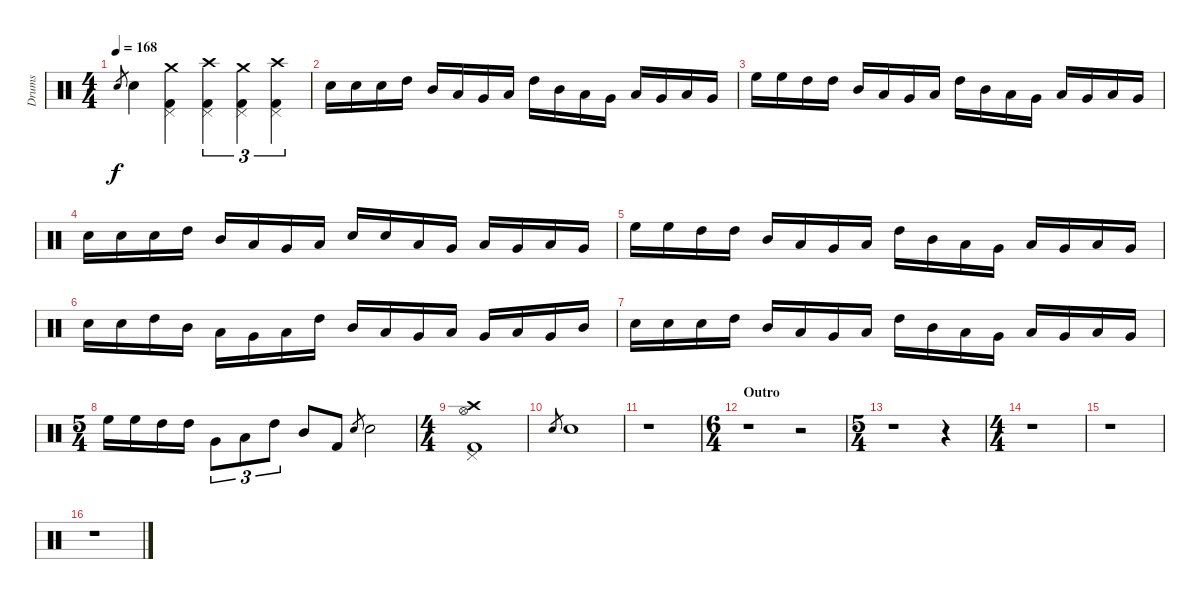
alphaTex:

\track ("Drums" "Drums") {instrument percussion}
\staff {score}
\articulation defaults
\ts (4 4)
\tempo 168
\clef neutral
\ks c "Snare (hit) 2".8{gr dy f} "Snare (hit) 2".4
("Kick (hit) 2" "Pedal Hi-Hat (hit)" "Crash medium (hit)").4 ("Kick (hit) 2" "Pedal Hi-Hat (hit)" "Crash high (hit)").4{tu (3 2)} ("Kick (hit) 2" "Pedal Hi-Hat (hit)" "Crash medium (hit)").4{tu (3 2)} ("Kick (hit) 2" "Pedal Hi-Hat (hit)" "Crash high (hit)").4{tu (3 2)} |
"Snare (hit) 2".16 "Snare (hit) 2".16 "Snare (hit) 2".16 "High Tom (hit)".16 "Mid Tom (hit)".16 "Low Tom (hit)".16 "Very Low Tom (hit)".16 "Low Floor Tom (hit)".16 "High Tom (hit)".16 "Mid Tom (hit)".16 "Low Tom (hit)".16 "Very Low Tom (hit)".16 "Low Floor Tom (hit)".16 "Very Low Tom (hit)".16 "Low Tom (hit)".16 "Very Low Tom (hit)".16 |
"High Floor Tom (hit)".16 "High Floor Tom (hit)".16 "High Tom (hit)".16 "High Tom (hit)".16 "Mid Tom (hit)".16 "Low Tom (hit)".16 "Very Low Tom (hit)".16 "Low Floor Tom (hit)".16 "High Tom (hit)".16 "Mid Tom (hit)".16 "Low Tom (hit)".16 "Very Low Tom (hit)".16 "Low Floor Tom (hit)".16 "Very Low Tom (hit)".16 "Low Tom (hit)".16 "Very Low Tom (hit)".16 |
"Snare (hit) 2".16 "Snare (hit) 2".16 "Snare (hit) 2".16 "High Tom (hit)".16 "Mid Tom (hit)".16 "Low Tom (hit)".16 "Very Low Tom (hit)".16 "Low Floor Tom (hit)".16 "Snare (hit) 2".16 "Snare (hit) 2".16 "Low Tom (hit)".16 "Very Low Tom (hit)".16 "Low Floor Tom (hit)".16 "Very Low Tom (hit)".16 "Low Tom (hit)".16 "Very Low Tom (hit)".16 |
"High Floor Tom (hit)".16 "High Floor Tom (hit)".16 "High Tom (hit)".16 "High Tom (hit)".16 "Mid Tom (hit)".16 "Low Tom (hit)".16 "Very Low Tom (hit)".16 "Low Floor Tom (hit)".16 "High Tom (hit)".16 "Mid Tom (hit)".16 "Low Tom (hit)".16 "Very Low Tom (hit)".16 "Low Floor Tom (hit)".16 "Very Low Tom (hit)".16 "Low Tom (hit)".16 "Very Low Tom (hit)".16 |
"Snare (hit) 2".16 "Snare (hit) 2".16 "High Tom (hit)".16 "Mid Tom (hit)".16 "Low Tom (hit)".16 "Very Low Tom (hit)".16 "Low Floor Tom (hit)".16 "High Tom (hit)".16 "Mid Tom (hit)".16 "Low Tom (hit)".16 "Very Low Tom (hit)".16 "Low Floor Tom (hit)".16 "Very Low Tom (hit)".16 "Low Tom (hit)".16 "Very Low Tom (hit)".16 "Mid Tom (hit)".16 |
"Snare (hit) 2".16 "Snare (hit) 2".16 "Snare (hit) 2".16 "High Tom (hit)".16 "Mid Tom (hit)".16 "Low Tom (hit)".16 "Very Low Tom (hit)".16 "Low Floor Tom (hit)".16 "High Tom (hit)".16 "Mid Tom (hit)".16 "Low Tom (hit)".16 "Very Low Tom (hit)".16 "Low Floor Tom (hit)".16 "Very Low Tom (hit)".16 "Low Tom (hit)".16 "Very Low Tom (hit)".16 |
\ts (5 4)
"High Floor Tom (hit)".16 "High Floor Tom (hit)".16 "High Tom (hit)".16 "High Tom (hit)".16 "Very Low Tom (hit)".8{tu (3 2)} "Low Floor Tom (hit)".8{tu (3 2)} "High Tom (hit)".8{tu (3 2)} "Mid Tom (hit)".8 "Kick (hit) 2".8 "Snare (hit) 2".8{gr} "Snare (hit) 2".2 |
\ts (4 4)
("Kick (hit) 2" "Pedal Hi-Hat (hit)" "Hi-Hat (open)" "Crash high (hit)").1 |
"Snare (hit) 2".8{gr} "Snare (hit) 2".1 |
r.1 |
\ts (6 4)
\section ("" "Outro")
r.1 r.2 |
\ts (5 4)
r.1 r.4 |
\ts (4 4)
r.1 |
r.1 |
r.1
